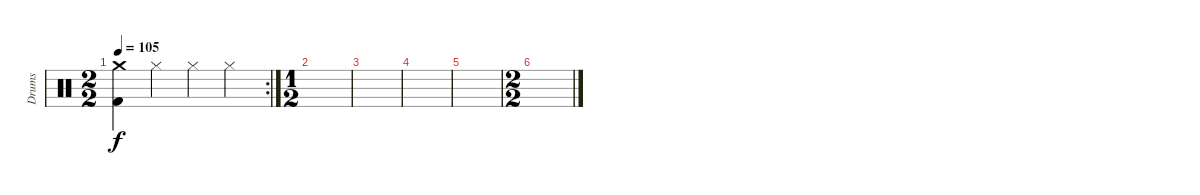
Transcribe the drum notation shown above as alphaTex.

\track ("Drums" "Drums") {instrument percussion}
\staff {score}
\articulation defaults
\rc 2
\ts (2 2)
\tempo 105
\clef neutral
\ks c
("Crash medium (hit)" "Kick (hit) 2").4{dy f} "Hi-Hat (closed)".4 "Hi-Hat (closed)".4 "Hi-Hat (closed)".4 |
\ts (1 2)
|
|
|
|
\ts (2 2)
